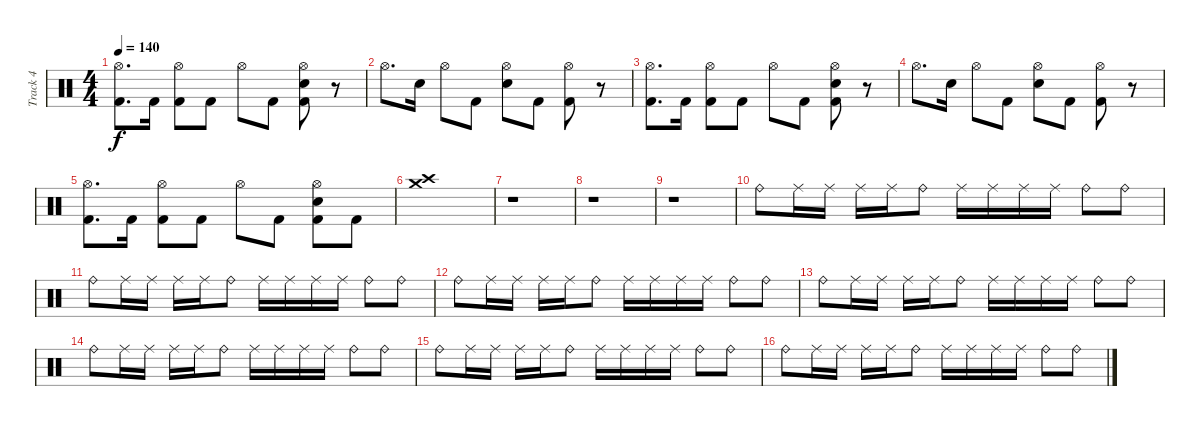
\track ("Track 4" "Track 4") {instrument percussion}
\staff {score}
\articulation defaults
\ts (4 4)
\tempo 140
\clef neutral
\ks c
("Hi-Hat (open)" "Kick (hit) 2").8{d dy f} "Kick (hit) 2".16 ("Hi-Hat (open)" "Kick (hit) 2").8 "Kick (hit) 2".8 "Hi-Hat (open)".8 "Kick (hit) 2".8 ("Hi-Hat (open)" "Snare (hit) 2" "Kick (hit) 2").8 r.8 |
"Hi-Hat (open)".8{d} "Snare (hit) 2".16 "Hi-Hat (open)".8 "Kick (hit) 2".8 ("Hi-Hat (open)" "Snare (hit) 2").8 "Kick (hit) 2".8 ("Hi-Hat (open)" "Kick (hit) 2").8 r.8 |
("Hi-Hat (open)" "Kick (hit) 2").8{d} "Kick (hit) 2".16 ("Hi-Hat (open)" "Kick (hit) 2").8 "Kick (hit) 2".8 "Hi-Hat (open)".8 "Kick (hit) 2".8 ("Hi-Hat (open)" "Snare (hit) 2" "Kick (hit) 2").8 r.8 |
"Hi-Hat (open)".8{d} "Snare (hit) 2".16 "Hi-Hat (open)".8 "Kick (hit) 2".8 ("Hi-Hat (open)" "Snare (hit) 2").8 "Kick (hit) 2".8 ("Hi-Hat (open)" "Kick (hit) 2").8 r.8 |
("Hi-Hat (open)" "Kick (hit) 2").8{d} "Kick (hit) 2".16 ("Hi-Hat (open)" "Kick (hit) 2").8 "Kick (hit) 2".8 "Hi-Hat (open)".8 "Kick (hit) 2".8 ("Hi-Hat (open)" "Snare (hit) 2" "Kick (hit) 2").8 "Kick (hit) 2".8 |
("Crash medium (hit)" "Crash high (hit)").1 |
r.1 |
r.1 |
r.1 |
"Ride (bell)".8 "Ride (middle)".16 "Ride (middle)".16 "Ride (middle)".16 "Ride (middle)".16 "Ride (bell)".8 "Ride (middle)".16 "Ride (middle)".16 "Ride (middle)".16 "Ride (middle)".16 "Ride (bell)".8 "Ride (bell)".8 |
"Ride (bell)".8 "Ride (middle)".16 "Ride (middle)".16 "Ride (middle)".16 "Ride (middle)".16 "Ride (bell)".8 "Ride (middle)".16 "Ride (middle)".16 "Ride (middle)".16 "Ride (middle)".16 "Ride (bell)".8 "Ride (bell)".8 |
"Ride (bell)".8 "Ride (middle)".16 "Ride (middle)".16 "Ride (middle)".16 "Ride (middle)".16 "Ride (bell)".8 "Ride (middle)".16 "Ride (middle)".16 "Ride (middle)".16 "Ride (middle)".16 "Ride (bell)".8 "Ride (bell)".8 |
"Ride (bell)".8 "Ride (middle)".16 "Ride (middle)".16 "Ride (middle)".16 "Ride (middle)".16 "Ride (bell)".8 "Ride (middle)".16 "Ride (middle)".16 "Ride (middle)".16 "Ride (middle)".16 "Ride (bell)".8 "Ride (bell)".8 |
"Ride (bell)".8 "Ride (middle)".16 "Ride (middle)".16 "Ride (middle)".16 "Ride (middle)".16 "Ride (bell)".8 "Ride (middle)".16 "Ride (middle)".16 "Ride (middle)".16 "Ride (middle)".16 "Ride (bell)".8 "Ride (bell)".8 |
"Ride (bell)".8 "Ride (middle)".16 "Ride (middle)".16 "Ride (middle)".16 "Ride (middle)".16 "Ride (bell)".8 "Ride (middle)".16 "Ride (middle)".16 "Ride (middle)".16 "Ride (middle)".16 "Ride (bell)".8 "Ride (bell)".8 |
"Ride (bell)".8 "Ride (middle)".16 "Ride (middle)".16 "Ride (middle)".16 "Ride (middle)".16 "Ride (bell)".8 "Ride (middle)".16 "Ride (middle)".16 "Ride (middle)".16 "Ride (middle)".16 "Ride (bell)".8 "Ride (bell)".8
